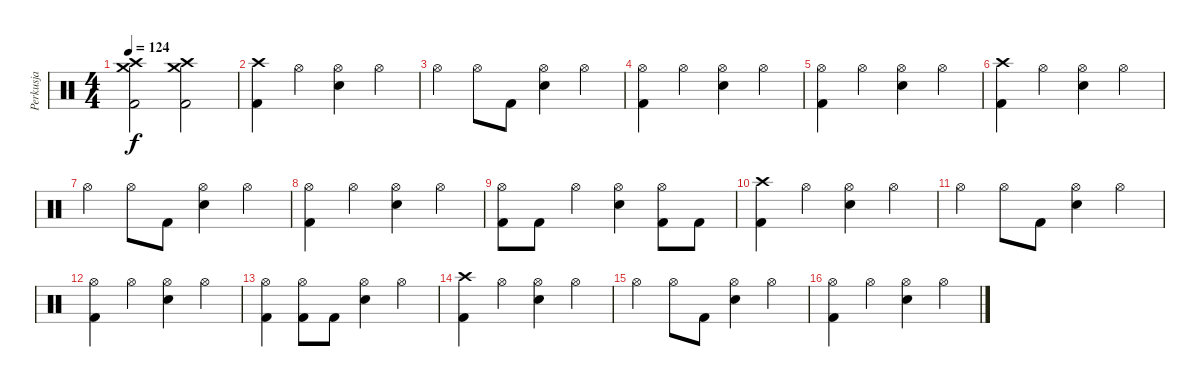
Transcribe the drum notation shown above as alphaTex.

\track ("Perkusja" "Perkusja") {instrument percussion}
\staff {score}
\articulation defaults
\ts (4 4)
\tempo 124
\clef neutral
\ks c
("Kick (hit) 2" "Crash medium (hit)" "Crash high (hit)").2{dy f} ("Kick (hit) 2" "Crash medium (hit)" "Crash high (hit)").2 |
("Kick (hit) 2" "Crash high (hit)").4 "Hi-Hat (open)".4 ("Snare (hit) 2" "Hi-Hat (open)").4 "Hi-Hat (open)".4 |
"Hi-Hat (open)".4 "Hi-Hat (open)".8 "Kick (hit) 2".8 ("Snare (hit) 2" "Hi-Hat (open)").4 "Hi-Hat (open)".4 |
("Kick (hit) 2" "Hi-Hat (open)").4 "Hi-Hat (open)".4 ("Snare (hit) 2" "Hi-Hat (open)").4 "Hi-Hat (open)".4 |
("Kick (hit) 2" "Hi-Hat (open)").4 "Hi-Hat (open)".4 ("Snare (hit) 2" "Hi-Hat (open)").4 "Hi-Hat (open)".4 |
("Kick (hit) 2" "Crash high (hit)").4 "Hi-Hat (open)".4 ("Snare (hit) 2" "Hi-Hat (open)").4 "Hi-Hat (open)".4 |
"Hi-Hat (open)".4 "Hi-Hat (open)".8 "Kick (hit) 2".8 ("Snare (hit) 2" "Hi-Hat (open)").4 "Hi-Hat (open)".4 |
("Kick (hit) 2" "Hi-Hat (open)").4 "Hi-Hat (open)".4 ("Snare (hit) 2" "Hi-Hat (open)").4 "Hi-Hat (open)".4 |
("Kick (hit) 2" "Hi-Hat (open)").8 "Kick (hit) 2".8 "Hi-Hat (open)".4 ("Snare (hit) 2" "Hi-Hat (open)").4 ("Kick (hit) 2" "Hi-Hat (open)").8 "Kick (hit) 2".8 |
("Kick (hit) 2" "Crash high (hit)").4 "Hi-Hat (open)".4 ("Snare (hit) 2" "Hi-Hat (open)").4 "Hi-Hat (open)".4 |
"Hi-Hat (open)".4 "Hi-Hat (open)".8 "Kick (hit) 2".8 ("Snare (hit) 2" "Hi-Hat (open)").4 "Hi-Hat (open)".4 |
("Kick (hit) 2" "Hi-Hat (open)").4 "Hi-Hat (open)".4 ("Snare (hit) 2" "Hi-Hat (open)").4 "Hi-Hat (open)".4 |
("Kick (hit) 2" "Hi-Hat (open)").4 ("Kick (hit) 2" "Hi-Hat (open)").8 "Kick (hit) 2".8 ("Snare (hit) 2" "Hi-Hat (open)").4 "Hi-Hat (open)".4 |
("Kick (hit) 2" "Crash high (hit)").4 "Hi-Hat (open)".4 ("Snare (hit) 2" "Hi-Hat (open)").4 "Hi-Hat (open)".4 |
"Hi-Hat (open)".4 "Hi-Hat (open)".8 "Kick (hit) 2".8 ("Snare (hit) 2" "Hi-Hat (open)").4 "Hi-Hat (open)".4 |
("Kick (hit) 2" "Hi-Hat (open)").4 "Hi-Hat (open)".4 ("Snare (hit) 2" "Hi-Hat (open)").4 "Hi-Hat (open)".4
